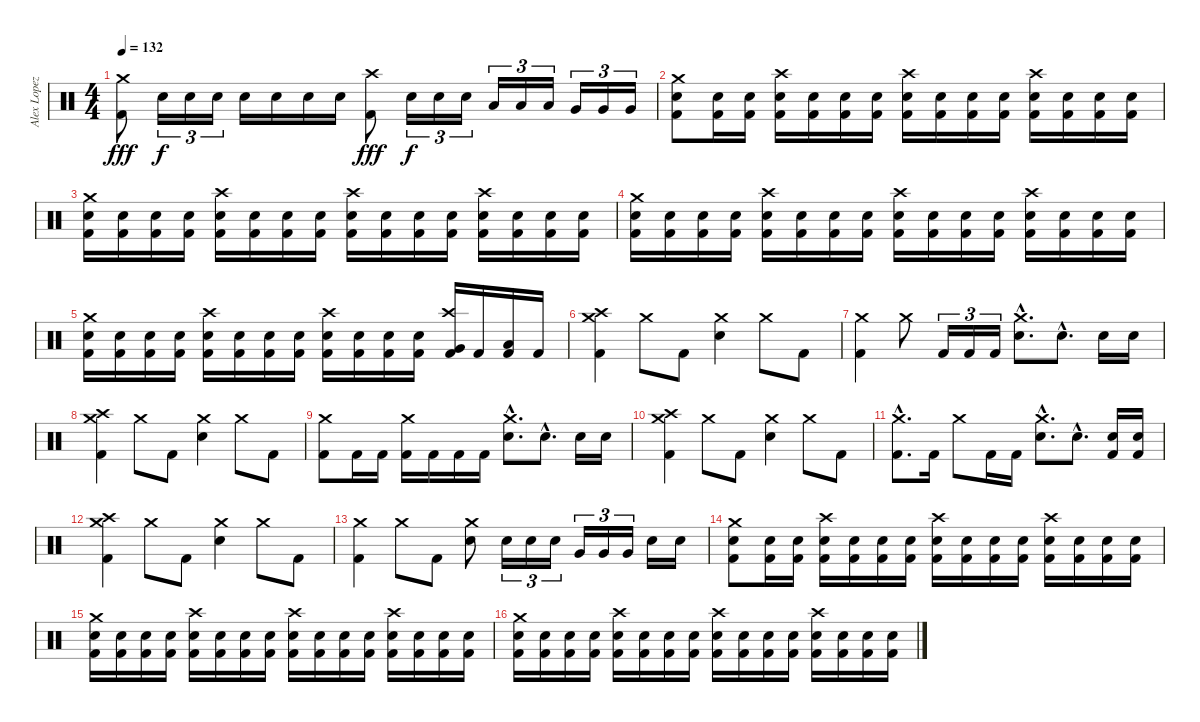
\track ("Alex Lopez" "Alex Lopez") {instrument percussion}
\staff {score}
\articulation defaults
\ts (4 4)
\tempo 132
\clef neutral
\ks c
("Crash medium (hit)" "Kick (hit) 2").8{dy fff} "Snare (hit) 2".16{tu (3 2) dy f} "Snare (hit) 2".16{tu (3 2)} "Snare (hit) 2".16{tu (3 2)} "Snare (hit) 2".16 "Snare (hit) 2".16 "Snare (hit) 2".16 "Snare (hit) 2".16 ("Crash high (hit)" "Kick (hit) 2").8{dy fff} "Snare (hit) 2".16{tu (3 2) dy f} "Snare (hit) 2".16{tu (3 2)} "Snare (hit) 2".16{tu (3 2)} "Low Tom (hit)".16{tu (3 2)} "Low Tom (hit)".16{tu (3 2)} "Low Tom (hit)".16{tu (3 2)} "Very Low Tom (hit)".16{tu (3 2)} "Very Low Tom (hit)".16{tu (3 2)} "Very Low Tom (hit)".16{tu (3 2)} |
("Crash medium (hit)" "Snare (hit) 2" "Kick (hit) 2").8 ("Snare (hit) 2" "Kick (hit) 2").16 ("Snare (hit) 2" "Kick (hit) 2").16 ("Crash high (hit)" "Snare (hit) 2" "Kick (hit) 2").16 ("Snare (hit) 2" "Kick (hit) 2").16 ("Snare (hit) 2" "Kick (hit) 2").16 ("Snare (hit) 2" "Kick (hit) 2").16 ("Crash high (hit)" "Snare (hit) 2" "Kick (hit) 2").16 ("Snare (hit) 2" "Kick (hit) 2").16 ("Snare (hit) 2" "Kick (hit) 2").16 ("Snare (hit) 2" "Kick (hit) 2").16 ("Crash high (hit)" "Snare (hit) 2" "Kick (hit) 2").16 ("Snare (hit) 2" "Kick (hit) 2").16 ("Snare (hit) 2" "Kick (hit) 2").16 ("Snare (hit) 2" "Kick (hit) 2").16 |
("Crash medium (hit)" "Snare (hit) 2" "Kick (hit) 2").16 ("Snare (hit) 2" "Kick (hit) 2").16 ("Snare (hit) 2" "Kick (hit) 2").16 ("Snare (hit) 2" "Kick (hit) 2").16 ("Crash high (hit)" "Snare (hit) 2" "Kick (hit) 2").16 ("Snare (hit) 2" "Kick (hit) 2").16 ("Snare (hit) 2" "Kick (hit) 2").16 ("Snare (hit) 2" "Kick (hit) 2").16 ("Crash high (hit)" "Snare (hit) 2" "Kick (hit) 2").16 ("Snare (hit) 2" "Kick (hit) 2").16 ("Snare (hit) 2" "Kick (hit) 2").16 ("Snare (hit) 2" "Kick (hit) 2").16 ("Crash high (hit)" "Snare (hit) 2" "Kick (hit) 2").16 ("Snare (hit) 2" "Kick (hit) 2").16 ("Snare (hit) 2" "Kick (hit) 2").16 ("Snare (hit) 2" "Kick (hit) 2").16 |
("Crash medium (hit)" "Snare (hit) 2" "Kick (hit) 2").16 ("Snare (hit) 2" "Kick (hit) 2").16 ("Snare (hit) 2" "Kick (hit) 2").16 ("Snare (hit) 2" "Kick (hit) 2").16 ("Crash high (hit)" "Snare (hit) 2" "Kick (hit) 2").16 ("Snare (hit) 2" "Kick (hit) 2").16 ("Snare (hit) 2" "Kick (hit) 2").16 ("Snare (hit) 2" "Kick (hit) 2").16 ("Crash high (hit)" "Snare (hit) 2" "Kick (hit) 2").16 ("Snare (hit) 2" "Kick (hit) 2").16 ("Snare (hit) 2" "Kick (hit) 2").16 ("Snare (hit) 2" "Kick (hit) 2").16 ("Crash high (hit)" "Snare (hit) 2" "Kick (hit) 2").16 ("Snare (hit) 2" "Kick (hit) 2").16 ("Snare (hit) 2" "Kick (hit) 2").16 ("Snare (hit) 2" "Kick (hit) 2").16 |
("Crash medium (hit)" "Snare (hit) 2" "Kick (hit) 2").16 ("Snare (hit) 2" "Kick (hit) 2").16 ("Snare (hit) 2" "Kick (hit) 2").16 ("Snare (hit) 2" "Kick (hit) 2").16 ("Crash high (hit)" "Snare (hit) 2" "Kick (hit) 2").16 ("Snare (hit) 2" "Kick (hit) 2").16 ("Snare (hit) 2" "Kick (hit) 2").16 ("Snare (hit) 2" "Kick (hit) 2").16 ("Crash high (hit)" "Snare (hit) 2" "Kick (hit) 2").16 ("Snare (hit) 2" "Kick (hit) 2").16 ("Snare (hit) 2" "Kick (hit) 2").16 ("Snare (hit) 2" "Kick (hit) 2").16 ("Crash high (hit)" "Very Low Tom (hit)" "Kick (hit) 2").16 "Kick (hit) 2".16 ("Low Tom (hit)" "Kick (hit) 2").16 "Kick (hit) 2".16 |
("Crash medium (hit)" "Crash high (hit)" "Kick (hit) 2").4 "Crash medium (hit)".8 "Kick (hit) 2".8 ("Crash medium (hit)" "Snare (hit) 2").4 "Crash medium (hit)".8 "Kick (hit) 2".8 |
("Crash medium (hit)" "Kick (hit) 2").4 "Crash medium (hit)".8 "Kick (hit) 2".16{tu (3 2)} "Kick (hit) 2".16{tu (3 2)} "Kick (hit) 2".16{tu (3 2)} ("Crash medium (hit)"{hac} "Snare (hit) 2"{hac}).8{d} "Snare (hit) 2"{hac}.8{d} "Snare (hit) 2".16 "Snare (hit) 2".16 |
("Crash medium (hit)" "Crash high (hit)" "Kick (hit) 2").4 "Crash medium (hit)".8 "Kick (hit) 2".8 ("Crash medium (hit)" "Snare (hit) 2").4 "Crash medium (hit)".8 "Kick (hit) 2".8 |
("Crash medium (hit)" "Kick (hit) 2").8 "Kick (hit) 2".16 "Kick (hit) 2".16 ("Crash medium (hit)" "Kick (hit) 2").16 "Kick (hit) 2".16 "Kick (hit) 2".16 "Kick (hit) 2".16 ("Crash medium (hit)"{hac} "Snare (hit) 2"{hac}).8{d} "Snare (hit) 2"{hac}.8{d} "Snare (hit) 2".16 "Snare (hit) 2".16 |
("Crash medium (hit)" "Crash high (hit)" "Kick (hit) 2").4 "Crash medium (hit)".8 "Kick (hit) 2".8 ("Crash medium (hit)" "Snare (hit) 2").4 "Crash medium (hit)".8 "Kick (hit) 2".8 |
("Crash medium (hit)"{hac} "Kick (hit) 2"{hac}).8{d} "Kick (hit) 2".16 "Crash medium (hit)".8 "Kick (hit) 2".16 "Kick (hit) 2".16 ("Crash medium (hit)"{hac} "Snare (hit) 2"{hac}).8{d} "Snare (hit) 2"{hac}.8{d} ("Snare (hit) 2" "Kick (hit) 2").16 ("Snare (hit) 2" "Kick (hit) 2").16 |
("Crash medium (hit)" "Crash high (hit)" "Kick (hit) 2").4 "Crash medium (hit)".8 "Kick (hit) 2".8 ("Crash medium (hit)" "Snare (hit) 2").4 "Crash medium (hit)".8 "Kick (hit) 2".8 |
("Crash medium (hit)" "Kick (hit) 2").4 "Crash medium (hit)".8 "Kick (hit) 2".8 ("Crash medium (hit)" "Snare (hit) 2").8 "Snare (hit) 2".16{tu (3 2)} "Snare (hit) 2".16{tu (3 2)} "Snare (hit) 2".16{tu (3 2)} "Very Low Tom (hit)".16{tu (3 2)} "Very Low Tom (hit)".16{tu (3 2)} "Very Low Tom (hit)".16{tu (3 2)} "Snare (hit) 2".16 "Snare (hit) 2".16 |
("Crash medium (hit)" "Snare (hit) 2" "Kick (hit) 2").8 ("Snare (hit) 2" "Kick (hit) 2").16 ("Snare (hit) 2" "Kick (hit) 2").16 ("Crash high (hit)" "Snare (hit) 2" "Kick (hit) 2").16 ("Snare (hit) 2" "Kick (hit) 2").16 ("Snare (hit) 2" "Kick (hit) 2").16 ("Snare (hit) 2" "Kick (hit) 2").16 ("Crash high (hit)" "Snare (hit) 2" "Kick (hit) 2").16 ("Snare (hit) 2" "Kick (hit) 2").16 ("Snare (hit) 2" "Kick (hit) 2").16 ("Snare (hit) 2" "Kick (hit) 2").16 ("Crash high (hit)" "Snare (hit) 2" "Kick (hit) 2").16 ("Snare (hit) 2" "Kick (hit) 2").16 ("Snare (hit) 2" "Kick (hit) 2").16 ("Snare (hit) 2" "Kick (hit) 2").16 |
("Crash medium (hit)" "Snare (hit) 2" "Kick (hit) 2").16 ("Snare (hit) 2" "Kick (hit) 2").16 ("Snare (hit) 2" "Kick (hit) 2").16 ("Snare (hit) 2" "Kick (hit) 2").16 ("Crash high (hit)" "Snare (hit) 2" "Kick (hit) 2").16 ("Snare (hit) 2" "Kick (hit) 2").16 ("Snare (hit) 2" "Kick (hit) 2").16 ("Snare (hit) 2" "Kick (hit) 2").16 ("Crash high (hit)" "Snare (hit) 2" "Kick (hit) 2").16 ("Snare (hit) 2" "Kick (hit) 2").16 ("Snare (hit) 2" "Kick (hit) 2").16 ("Snare (hit) 2" "Kick (hit) 2").16 ("Crash high (hit)" "Snare (hit) 2" "Kick (hit) 2").16 ("Snare (hit) 2" "Kick (hit) 2").16 ("Snare (hit) 2" "Kick (hit) 2").16 ("Snare (hit) 2" "Kick (hit) 2").16 |
("Crash medium (hit)" "Snare (hit) 2" "Kick (hit) 2").16 ("Snare (hit) 2" "Kick (hit) 2").16 ("Snare (hit) 2" "Kick (hit) 2").16 ("Snare (hit) 2" "Kick (hit) 2").16 ("Crash high (hit)" "Snare (hit) 2" "Kick (hit) 2").16 ("Snare (hit) 2" "Kick (hit) 2").16 ("Snare (hit) 2" "Kick (hit) 2").16 ("Snare (hit) 2" "Kick (hit) 2").16 ("Crash high (hit)" "Snare (hit) 2" "Kick (hit) 2").16 ("Snare (hit) 2" "Kick (hit) 2").16 ("Snare (hit) 2" "Kick (hit) 2").16 ("Snare (hit) 2" "Kick (hit) 2").16 ("Crash high (hit)" "Snare (hit) 2" "Kick (hit) 2").16 ("Snare (hit) 2" "Kick (hit) 2").16 ("Snare (hit) 2" "Kick (hit) 2").16 ("Snare (hit) 2" "Kick (hit) 2").16
